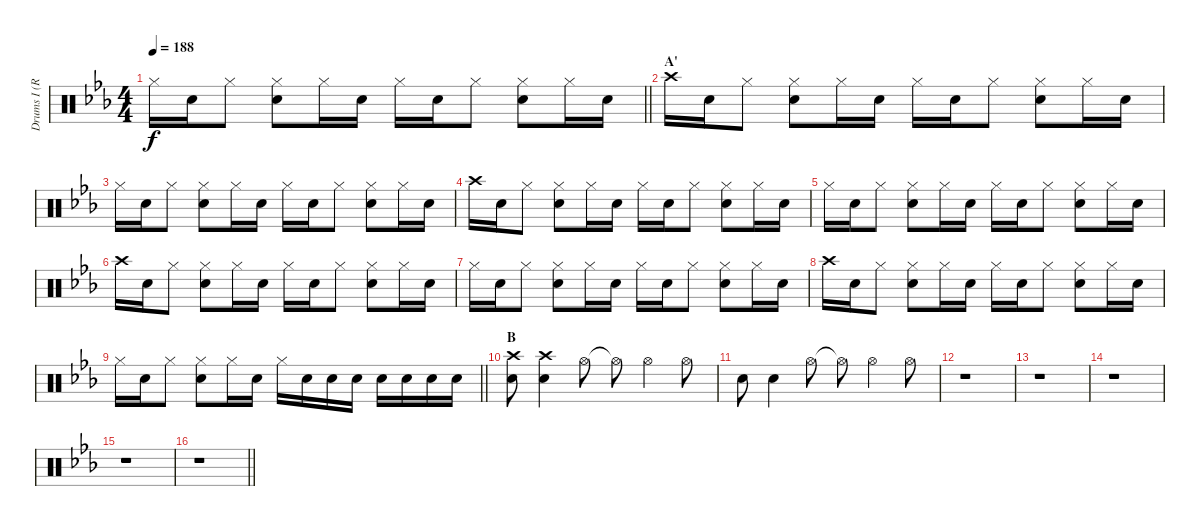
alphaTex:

\track ("Drums I (RUKA)" "Drums I (R") {instrument percussion}
\staff {score}
\articulation defaults
\ts (4 4)
\tempo 188
\clef neutral
\barLineRight lightlight
\ks eb "Hi-Hat (closed)".16{dy f} "Snare (hit) 2".16 "Hi-Hat (closed)".8
("Hi-Hat (closed)" "Snare (hit) 2").8 "Hi-Hat (closed)".16 "Snare (hit) 2".16 "Hi-Hat (closed)".16 "Snare (hit) 2".16 "Hi-Hat (closed)".8 ("Hi-Hat (closed)" "Snare (hit) 2").8 "Hi-Hat (closed)".16 "Snare (hit) 2".16 |
\section ("" "A'")
"Crash high (hit)".16 "Snare (hit) 2".16 "Hi-Hat (closed)".8 ("Hi-Hat (closed)" "Snare (hit) 2").8 "Hi-Hat (closed)".16 "Snare (hit) 2".16 "Hi-Hat (closed)".16 "Snare (hit) 2".16 "Hi-Hat (closed)".8 ("Hi-Hat (closed)" "Snare (hit) 2").8 "Hi-Hat (closed)".16 "Snare (hit) 2".16 |
"Hi-Hat (closed)".16 "Snare (hit) 2".16 "Hi-Hat (closed)".8 ("Hi-Hat (closed)" "Snare (hit) 2").8 "Hi-Hat (closed)".16 "Snare (hit) 2".16 "Hi-Hat (closed)".16 "Snare (hit) 2".16 "Hi-Hat (closed)".8 ("Hi-Hat (closed)" "Snare (hit) 2").8 "Hi-Hat (closed)".16 "Snare (hit) 2".16 |
"Crash high (hit)".16 "Snare (hit) 2".16 "Hi-Hat (closed)".8 ("Hi-Hat (closed)" "Snare (hit) 2").8 "Hi-Hat (closed)".16 "Snare (hit) 2".16 "Hi-Hat (closed)".16 "Snare (hit) 2".16 "Hi-Hat (closed)".8 ("Hi-Hat (closed)" "Snare (hit) 2").8 "Hi-Hat (closed)".16 "Snare (hit) 2".16 |
"Hi-Hat (closed)".16 "Snare (hit) 2".16 "Hi-Hat (closed)".8 ("Hi-Hat (closed)" "Snare (hit) 2").8 "Hi-Hat (closed)".16 "Snare (hit) 2".16 "Hi-Hat (closed)".16 "Snare (hit) 2".16 "Hi-Hat (closed)".8 ("Hi-Hat (closed)" "Snare (hit) 2").8 "Hi-Hat (closed)".16 "Snare (hit) 2".16 |
"Crash high (hit)".16 "Snare (hit) 2".16 "Hi-Hat (closed)".8 ("Hi-Hat (closed)" "Snare (hit) 2").8 "Hi-Hat (closed)".16 "Snare (hit) 2".16 "Hi-Hat (closed)".16 "Snare (hit) 2".16 "Hi-Hat (closed)".8 ("Hi-Hat (closed)" "Snare (hit) 2").8 "Hi-Hat (closed)".16 "Snare (hit) 2".16 |
"Hi-Hat (closed)".16 "Snare (hit) 2".16 "Hi-Hat (closed)".8 ("Hi-Hat (closed)" "Snare (hit) 2").8 "Hi-Hat (closed)".16 "Snare (hit) 2".16 "Hi-Hat (closed)".16 "Snare (hit) 2".16 "Hi-Hat (closed)".8 ("Hi-Hat (closed)" "Snare (hit) 2").8 "Hi-Hat (closed)".16 "Snare (hit) 2".16 |
"Crash high (hit)".16 "Snare (hit) 2".16 "Hi-Hat (closed)".8 ("Hi-Hat (closed)" "Snare (hit) 2").8 "Hi-Hat (closed)".16 "Snare (hit) 2".16 "Hi-Hat (closed)".16 "Snare (hit) 2".16 "Hi-Hat (closed)".8 ("Hi-Hat (closed)" "Snare (hit) 2").8 "Hi-Hat (closed)".16 "Snare (hit) 2".16 |
\barLineRight lightlight "Hi-Hat (closed)".16 "Snare (hit) 2".16 "Hi-Hat (closed)".8
("Hi-Hat (closed)" "Snare (hit) 2").8 "Hi-Hat (closed)".16 "Snare (hit) 2".16 "Hi-Hat (closed)".16 "Snare (hit) 2".16 "Snare (hit) 2".16 "Snare (hit) 2".16 "Snare (hit) 2".16 "Snare (hit) 2".16 "Snare (hit) 2".16 "Snare (hit) 2".16 |
\section ("" "B")
("Crash high (hit)" "Snare (hit) 2").8 ("Crash high (hit)" "Snare (hit) 2").4 "Hi-Hat (open)".8 "Hi-Hat (open)"{t}.8 "Hi-Hat (open)".4 "Hi-Hat (open)".8 |
"Snare (hit) 2".8 "Snare (hit) 2".4 "Hi-Hat (open)".8 "Hi-Hat (open)"{t}.8 "Hi-Hat (open)".4 "Hi-Hat (open)".8 |
r.1 |
r.1 |
r.1 |
r.1 |
\barLineRight lightlight
r.1
